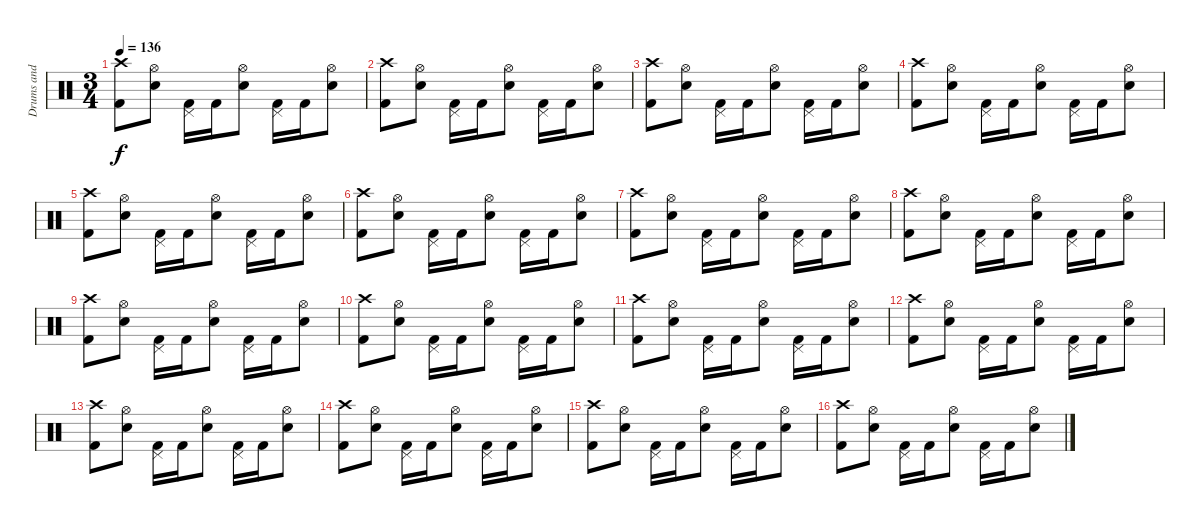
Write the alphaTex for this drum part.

\track ("Drums and percussion" "Drums and ") {instrument percussion}
\staff {score}
\articulation defaults
\ts (3 4)
\tempo 136
\clef neutral
\ks c
("Crash high (hit)" "Kick (hit) 2").8{dy f} ("Hi-Hat (open)" "Snare (hit) 2").8 ("Pedal Hi-Hat (hit)" "Kick (hit) 2").16 "Kick (hit) 2".16 ("Hi-Hat (open)" "Snare (hit) 2").8 ("Pedal Hi-Hat (hit)" "Kick (hit) 2").16 "Kick (hit) 2".16 ("Hi-Hat (open)" "Snare (hit) 2").8 |
("Crash high (hit)" "Kick (hit) 2").8 ("Hi-Hat (open)" "Snare (hit) 2").8 ("Pedal Hi-Hat (hit)" "Kick (hit) 2").16 "Kick (hit) 2".16 ("Hi-Hat (open)" "Snare (hit) 2").8 ("Pedal Hi-Hat (hit)" "Kick (hit) 2").16 "Kick (hit) 2".16 ("Hi-Hat (open)" "Snare (hit) 2").8 |
("Crash high (hit)" "Kick (hit) 2").8 ("Hi-Hat (open)" "Snare (hit) 2").8 ("Pedal Hi-Hat (hit)" "Kick (hit) 2").16 "Kick (hit) 2".16 ("Hi-Hat (open)" "Snare (hit) 2").8 ("Pedal Hi-Hat (hit)" "Kick (hit) 2").16 "Kick (hit) 2".16 ("Hi-Hat (open)" "Snare (hit) 2").8 |
("Crash high (hit)" "Kick (hit) 2").8 ("Hi-Hat (open)" "Snare (hit) 2").8 ("Pedal Hi-Hat (hit)" "Kick (hit) 2").16 "Kick (hit) 2".16 ("Hi-Hat (open)" "Snare (hit) 2").8 ("Pedal Hi-Hat (hit)" "Kick (hit) 2").16 "Kick (hit) 2".16 ("Hi-Hat (open)" "Snare (hit) 2").8 |
("Crash high (hit)" "Kick (hit) 2").8 ("Hi-Hat (open)" "Snare (hit) 2").8 ("Pedal Hi-Hat (hit)" "Kick (hit) 2").16 "Kick (hit) 2".16 ("Hi-Hat (open)" "Snare (hit) 2").8 ("Pedal Hi-Hat (hit)" "Kick (hit) 2").16 "Kick (hit) 2".16 ("Hi-Hat (open)" "Snare (hit) 2").8 |
("Crash high (hit)" "Kick (hit) 2").8 ("Hi-Hat (open)" "Snare (hit) 2").8 ("Pedal Hi-Hat (hit)" "Kick (hit) 2").16 "Kick (hit) 2".16 ("Hi-Hat (open)" "Snare (hit) 2").8 ("Pedal Hi-Hat (hit)" "Kick (hit) 2").16 "Kick (hit) 2".16 ("Hi-Hat (open)" "Snare (hit) 2").8 |
("Crash high (hit)" "Kick (hit) 2").8 ("Hi-Hat (open)" "Snare (hit) 2").8 ("Pedal Hi-Hat (hit)" "Kick (hit) 2").16 "Kick (hit) 2".16 ("Hi-Hat (open)" "Snare (hit) 2").8 ("Pedal Hi-Hat (hit)" "Kick (hit) 2").16 "Kick (hit) 2".16 ("Hi-Hat (open)" "Snare (hit) 2").8 |
("Crash high (hit)" "Kick (hit) 2").8 ("Hi-Hat (open)" "Snare (hit) 2").8 ("Pedal Hi-Hat (hit)" "Kick (hit) 2").16 "Kick (hit) 2".16 ("Hi-Hat (open)" "Snare (hit) 2").8 ("Pedal Hi-Hat (hit)" "Kick (hit) 2").16 "Kick (hit) 2".16 ("Hi-Hat (open)" "Snare (hit) 2").8 |
("Crash high (hit)" "Kick (hit) 2").8 ("Hi-Hat (open)" "Snare (hit) 2").8 ("Pedal Hi-Hat (hit)" "Kick (hit) 2").16 "Kick (hit) 2".16 ("Hi-Hat (open)" "Snare (hit) 2").8 ("Pedal Hi-Hat (hit)" "Kick (hit) 2").16 "Kick (hit) 2".16 ("Hi-Hat (open)" "Snare (hit) 2").8 |
("Crash high (hit)" "Kick (hit) 2").8 ("Hi-Hat (open)" "Snare (hit) 2").8 ("Pedal Hi-Hat (hit)" "Kick (hit) 2").16 "Kick (hit) 2".16 ("Hi-Hat (open)" "Snare (hit) 2").8 ("Pedal Hi-Hat (hit)" "Kick (hit) 2").16 "Kick (hit) 2".16 ("Hi-Hat (open)" "Snare (hit) 2").8 |
("Crash high (hit)" "Kick (hit) 2").8 ("Hi-Hat (open)" "Snare (hit) 2").8 ("Pedal Hi-Hat (hit)" "Kick (hit) 2").16 "Kick (hit) 2".16 ("Hi-Hat (open)" "Snare (hit) 2").8 ("Pedal Hi-Hat (hit)" "Kick (hit) 2").16 "Kick (hit) 2".16 ("Hi-Hat (open)" "Snare (hit) 2").8 |
("Crash high (hit)" "Kick (hit) 2").8 ("Hi-Hat (open)" "Snare (hit) 2").8 ("Pedal Hi-Hat (hit)" "Kick (hit) 2").16 "Kick (hit) 2".16 ("Hi-Hat (open)" "Snare (hit) 2").8 ("Pedal Hi-Hat (hit)" "Kick (hit) 2").16 "Kick (hit) 2".16 ("Hi-Hat (open)" "Snare (hit) 2").8 |
("Crash high (hit)" "Kick (hit) 2").8 ("Hi-Hat (open)" "Snare (hit) 2").8 ("Pedal Hi-Hat (hit)" "Kick (hit) 2").16 "Kick (hit) 2".16 ("Hi-Hat (open)" "Snare (hit) 2").8 ("Pedal Hi-Hat (hit)" "Kick (hit) 2").16 "Kick (hit) 2".16 ("Hi-Hat (open)" "Snare (hit) 2").8 |
("Crash high (hit)" "Kick (hit) 2").8 ("Hi-Hat (open)" "Snare (hit) 2").8 ("Pedal Hi-Hat (hit)" "Kick (hit) 2").16 "Kick (hit) 2".16 ("Hi-Hat (open)" "Snare (hit) 2").8 ("Pedal Hi-Hat (hit)" "Kick (hit) 2").16 "Kick (hit) 2".16 ("Hi-Hat (open)" "Snare (hit) 2").8 |
("Crash high (hit)" "Kick (hit) 2").8 ("Hi-Hat (open)" "Snare (hit) 2").8 ("Pedal Hi-Hat (hit)" "Kick (hit) 2").16 "Kick (hit) 2".16 ("Hi-Hat (open)" "Snare (hit) 2").8 ("Pedal Hi-Hat (hit)" "Kick (hit) 2").16 "Kick (hit) 2".16 ("Hi-Hat (open)" "Snare (hit) 2").8 |
("Crash high (hit)" "Kick (hit) 2").8 ("Hi-Hat (open)" "Snare (hit) 2").8 ("Pedal Hi-Hat (hit)" "Kick (hit) 2").16 "Kick (hit) 2".16 ("Hi-Hat (open)" "Snare (hit) 2").8 ("Pedal Hi-Hat (hit)" "Kick (hit) 2").16 "Kick (hit) 2".16 ("Hi-Hat (open)" "Snare (hit) 2").8
